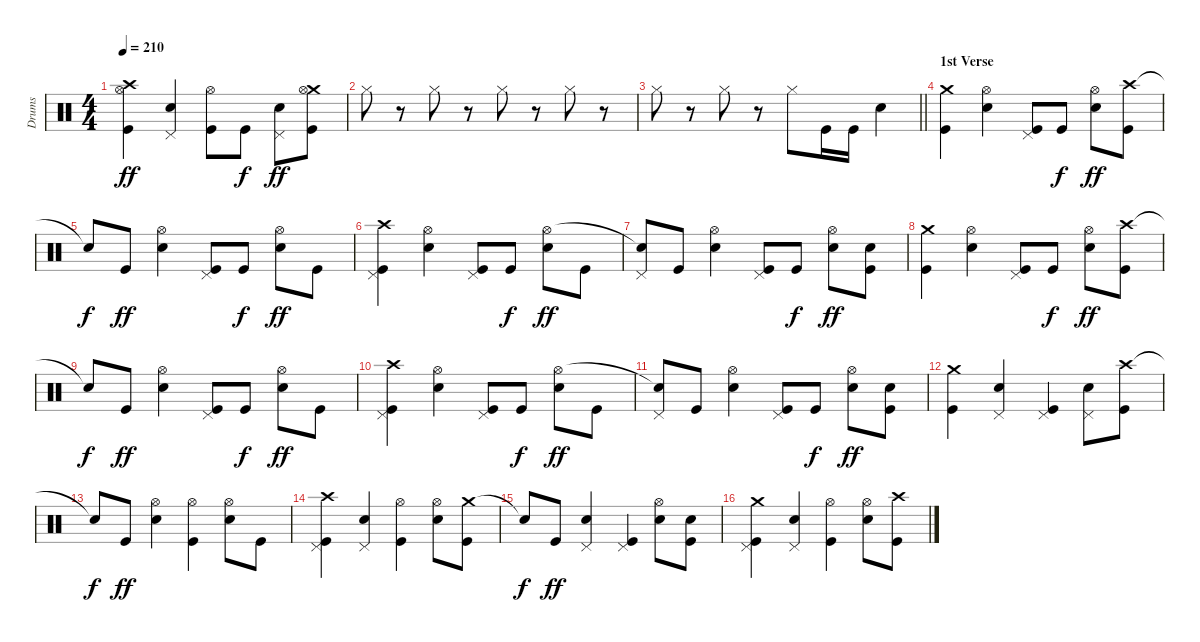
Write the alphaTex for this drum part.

\track ("Drums" "Drums") {instrument percussion}
\staff {score}
\articulation defaults
\ts (4 4)
\tempo 210
\clef neutral
\ks c
("Crash high (hit)" "Hi-Hat (open)" "Kick (hit)").4{dy ff} ("Electric Snare (hit)" "Pedal Hi-Hat (hit)").4 ("Hi-Hat (open)" "Kick (hit)").8 "Kick (hit)".8{dy f} ("Electric Snare (hit)" "Pedal Hi-Hat (hit)").8{dy ff} ("Crash medium (hit)" "Hi-Hat (open)" "Kick (hit)").8 |
"Hi-Hat (closed)".8 r.8 "Hi-Hat (closed)".8 r.8 "Hi-Hat (closed)".8 r.8 "Hi-Hat (closed)".8 r.8 |
\barLineRight lightlight "Hi-Hat (closed)".8
r.8 "Hi-Hat (closed)".8 r.8 "Hi-Hat (closed)".8 "Kick (hit)".16 "Kick (hit)".16 "Electric Snare (hit)".4 |
\section ("" "1st Verse")
("Crash medium (hit)" "Kick (hit)").4 ("Electric Snare (hit)" "Hi-Hat (open)").4 ("Pedal Hi-Hat (hit)" "Kick (hit)").8 "Kick (hit)".8{dy f} ("Electric Snare (hit)" "Hi-Hat (open)").8{dy ff} ("Crash high (hit)" "Kick (hit)").8 |
"Snare (hit)"{t}.8{dy f} "Kick (hit)".8{dy ff} ("Electric Snare (hit)" "Hi-Hat (open)").4 ("Pedal Hi-Hat (hit)" "Kick (hit)").8 "Kick (hit)".8{dy f} ("Electric Snare (hit)" "Hi-Hat (open)").8{dy ff} "Kick (hit)".8 |
("Crash high (hit)" "Pedal Hi-Hat (hit)" "Kick (hit)").4 ("Electric Snare (hit)" "Hi-Hat (open)").4 ("Pedal Hi-Hat (hit)" "Kick (hit)").8 "Kick (hit)".8{dy f} ("Electric Snare (hit)" "Hi-Hat (open)").8{dy ff} "Kick (hit)".8 |
("Pedal Hi-Hat (hit)" "Snare (hit)"{t}).8 "Kick (hit)".8 ("Electric Snare (hit)" "Hi-Hat (open)").4 ("Pedal Hi-Hat (hit)" "Kick (hit)").8 "Kick (hit)".8{dy f} ("Electric Snare (hit)" "Hi-Hat (open)").8{dy ff} ("Electric Snare (hit)" "Kick (hit)").8 |
("Crash medium (hit)" "Kick (hit)").4 ("Electric Snare (hit)" "Hi-Hat (open)").4 ("Pedal Hi-Hat (hit)" "Kick (hit)").8 "Kick (hit)".8{dy f} ("Electric Snare (hit)" "Hi-Hat (open)").8{dy ff} ("Crash high (hit)" "Kick (hit)").8 |
"Snare (hit)"{t}.8{dy f} "Kick (hit)".8{dy ff} ("Electric Snare (hit)" "Hi-Hat (open)").4 ("Pedal Hi-Hat (hit)" "Kick (hit)").8 "Kick (hit)".8{dy f} ("Electric Snare (hit)" "Hi-Hat (open)").8{dy ff} "Kick (hit)".8 |
("Crash high (hit)" "Pedal Hi-Hat (hit)" "Kick (hit)").4 ("Electric Snare (hit)" "Hi-Hat (open)").4 ("Pedal Hi-Hat (hit)" "Kick (hit)").8 "Kick (hit)".8{dy f} ("Electric Snare (hit)" "Hi-Hat (open)").8{dy ff} "Kick (hit)".8 |
("Pedal Hi-Hat (hit)" "Snare (hit)"{t}).8 "Kick (hit)".8 ("Electric Snare (hit)" "Hi-Hat (open)").4 ("Pedal Hi-Hat (hit)" "Kick (hit)").8 "Kick (hit)".8{dy f} ("Electric Snare (hit)" "Hi-Hat (open)").8{dy ff} ("Electric Snare (hit)" "Kick (hit)").8 |
("Crash medium (hit)" "Kick (hit)").4 ("Electric Snare (hit)" "Pedal Hi-Hat (hit)").4 ("Pedal Hi-Hat (hit)" "Kick (hit)").4 ("Electric Snare (hit)" "Pedal Hi-Hat (hit)").8 ("Crash high (hit)" "Kick (hit)").8 |
"Snare (hit)"{t}.8{dy f} "Kick (hit)".8{dy ff} ("Electric Snare (hit)" "Hi-Hat (open)").4 ("Hi-Hat (open)" "Kick (hit)").4 ("Electric Snare (hit)" "Hi-Hat (open)").8 "Kick (hit)".8 |
("Crash high (hit)" "Pedal Hi-Hat (hit)" "Kick (hit)").4 ("Electric Snare (hit)" "Pedal Hi-Hat (hit)").4 ("Hi-Hat (open)" "Kick (hit)").4 ("Electric Snare (hit)" "Hi-Hat (open)").8 ("Crash medium (hit)" "Kick (hit)").8 |
"Snare (hit)"{t}.8{dy f} "Kick (hit)".8{dy ff} ("Electric Snare (hit)" "Pedal Hi-Hat (hit)").4 ("Pedal Hi-Hat (hit)" "Kick (hit)").4 ("Electric Snare (hit)" "Hi-Hat (open)").8 ("Electric Snare (hit)" "Kick (hit)").8 |
("Crash medium (hit)" "Pedal Hi-Hat (hit)" "Kick (hit)").4 ("Electric Snare (hit)" "Pedal Hi-Hat (hit)").4 ("Hi-Hat (open)" "Kick (hit)").4 ("Electric Snare (hit)" "Hi-Hat (open)").8 ("Crash high (hit)" "Kick (hit)").8
